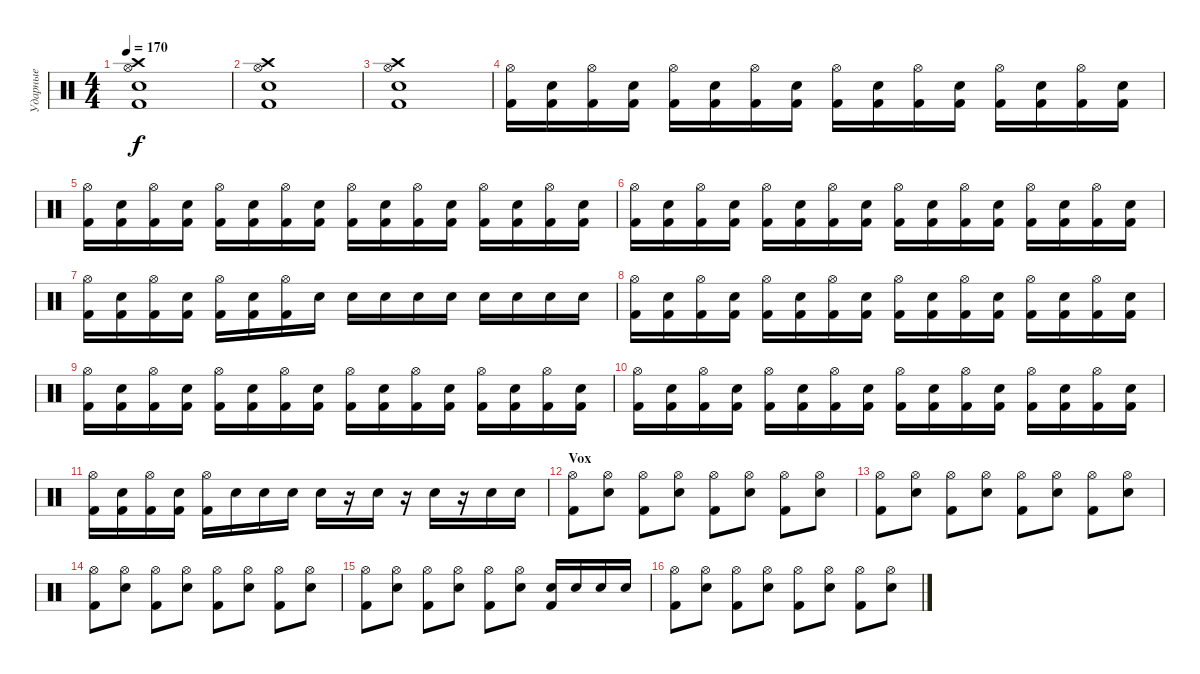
\track ("Ударные" "Ударные") {instrument percussion}
\staff {score}
\articulation defaults
\ts (4 4)
\tempo 170
\clef neutral
\ks c
("Crash high (hit)" "Hi-Hat (open)" "Snare (hit) 2" "Kick (hit) 2").1{dy f} |
("Crash high (hit)" "Hi-Hat (open)" "Snare (hit) 2" "Kick (hit) 2").1 |
("Crash high (hit)" "Hi-Hat (open)" "Snare (hit) 2" "Kick (hit) 2").1 |
("Hi-Hat (open)" "Kick (hit) 2").16 ("Snare (hit) 2" "Kick (hit) 2").16 ("Hi-Hat (open)" "Kick (hit) 2").16 ("Snare (hit) 2" "Kick (hit) 2").16 ("Hi-Hat (open)" "Kick (hit) 2").16 ("Snare (hit) 2" "Kick (hit) 2").16 ("Hi-Hat (open)" "Kick (hit) 2").16 ("Snare (hit) 2" "Kick (hit) 2").16 ("Hi-Hat (open)" "Kick (hit) 2").16 ("Snare (hit) 2" "Kick (hit) 2").16 ("Hi-Hat (open)" "Kick (hit) 2").16 ("Snare (hit) 2" "Kick (hit) 2").16 ("Hi-Hat (open)" "Kick (hit) 2").16 ("Snare (hit) 2" "Kick (hit) 2").16 ("Hi-Hat (open)" "Kick (hit) 2").16 ("Snare (hit) 2" "Kick (hit) 2").16 |
("Hi-Hat (open)" "Kick (hit) 2").16 ("Snare (hit) 2" "Kick (hit) 2").16 ("Hi-Hat (open)" "Kick (hit) 2").16 ("Snare (hit) 2" "Kick (hit) 2").16 ("Hi-Hat (open)" "Kick (hit) 2").16 ("Snare (hit) 2" "Kick (hit) 2").16 ("Hi-Hat (open)" "Kick (hit) 2").16 ("Snare (hit) 2" "Kick (hit) 2").16 ("Hi-Hat (open)" "Kick (hit) 2").16 ("Snare (hit) 2" "Kick (hit) 2").16 ("Hi-Hat (open)" "Kick (hit) 2").16 ("Snare (hit) 2" "Kick (hit) 2").16 ("Hi-Hat (open)" "Kick (hit) 2").16 ("Snare (hit) 2" "Kick (hit) 2").16 ("Hi-Hat (open)" "Kick (hit) 2").16 ("Snare (hit) 2" "Kick (hit) 2").16 |
("Hi-Hat (open)" "Kick (hit) 2").16 ("Snare (hit) 2" "Kick (hit) 2").16 ("Hi-Hat (open)" "Kick (hit) 2").16 ("Snare (hit) 2" "Kick (hit) 2").16 ("Hi-Hat (open)" "Kick (hit) 2").16 ("Snare (hit) 2" "Kick (hit) 2").16 ("Hi-Hat (open)" "Kick (hit) 2").16 ("Snare (hit) 2" "Kick (hit) 2").16 ("Hi-Hat (open)" "Kick (hit) 2").16 ("Snare (hit) 2" "Kick (hit) 2").16 ("Hi-Hat (open)" "Kick (hit) 2").16 ("Snare (hit) 2" "Kick (hit) 2").16 ("Hi-Hat (open)" "Kick (hit) 2").16 ("Snare (hit) 2" "Kick (hit) 2").16 ("Hi-Hat (open)" "Kick (hit) 2").16 ("Snare (hit) 2" "Kick (hit) 2").16 |
("Hi-Hat (open)" "Kick (hit) 2").16 ("Snare (hit) 2" "Kick (hit) 2").16 ("Hi-Hat (open)" "Kick (hit) 2").16 ("Snare (hit) 2" "Kick (hit) 2").16 ("Hi-Hat (open)" "Kick (hit) 2").16 ("Snare (hit) 2" "Kick (hit) 2").16 ("Hi-Hat (open)" "Kick (hit) 2").16 "Snare (hit) 2".16 "Snare (hit) 2".16 "Snare (hit) 2".16 "Snare (hit) 2".16 "Snare (hit) 2".16 "Snare (hit) 2".16 "Snare (hit) 2".16 "Snare (hit) 2".16 "Snare (hit) 2".16 |
("Hi-Hat (open)" "Kick (hit) 2").16 ("Snare (hit) 2" "Kick (hit) 2").16 ("Hi-Hat (open)" "Kick (hit) 2").16 ("Snare (hit) 2" "Kick (hit) 2").16 ("Hi-Hat (open)" "Kick (hit) 2").16 ("Snare (hit) 2" "Kick (hit) 2").16 ("Hi-Hat (open)" "Kick (hit) 2").16 ("Snare (hit) 2" "Kick (hit) 2").16 ("Hi-Hat (open)" "Kick (hit) 2").16 ("Snare (hit) 2" "Kick (hit) 2").16 ("Hi-Hat (open)" "Kick (hit) 2").16 ("Snare (hit) 2" "Kick (hit) 2").16 ("Hi-Hat (open)" "Kick (hit) 2").16 ("Snare (hit) 2" "Kick (hit) 2").16 ("Hi-Hat (open)" "Kick (hit) 2").16 ("Snare (hit) 2" "Kick (hit) 2").16 |
("Hi-Hat (open)" "Kick (hit) 2").16 ("Snare (hit) 2" "Kick (hit) 2").16 ("Hi-Hat (open)" "Kick (hit) 2").16 ("Snare (hit) 2" "Kick (hit) 2").16 ("Hi-Hat (open)" "Kick (hit) 2").16 ("Snare (hit) 2" "Kick (hit) 2").16 ("Hi-Hat (open)" "Kick (hit) 2").16 ("Snare (hit) 2" "Kick (hit) 2").16 ("Hi-Hat (open)" "Kick (hit) 2").16 ("Snare (hit) 2" "Kick (hit) 2").16 ("Hi-Hat (open)" "Kick (hit) 2").16 ("Snare (hit) 2" "Kick (hit) 2").16 ("Hi-Hat (open)" "Kick (hit) 2").16 ("Snare (hit) 2" "Kick (hit) 2").16 ("Hi-Hat (open)" "Kick (hit) 2").16 ("Snare (hit) 2" "Kick (hit) 2").16 |
("Hi-Hat (open)" "Kick (hit) 2").16 ("Snare (hit) 2" "Kick (hit) 2").16 ("Hi-Hat (open)" "Kick (hit) 2").16 ("Snare (hit) 2" "Kick (hit) 2").16 ("Hi-Hat (open)" "Kick (hit) 2").16 ("Snare (hit) 2" "Kick (hit) 2").16 ("Hi-Hat (open)" "Kick (hit) 2").16 ("Snare (hit) 2" "Kick (hit) 2").16 ("Hi-Hat (open)" "Kick (hit) 2").16 ("Snare (hit) 2" "Kick (hit) 2").16 ("Hi-Hat (open)" "Kick (hit) 2").16 ("Snare (hit) 2" "Kick (hit) 2").16 ("Hi-Hat (open)" "Kick (hit) 2").16 ("Snare (hit) 2" "Kick (hit) 2").16 ("Hi-Hat (open)" "Kick (hit) 2").16 ("Snare (hit) 2" "Kick (hit) 2").16 |
("Hi-Hat (open)" "Kick (hit) 2").16 ("Snare (hit) 2" "Kick (hit) 2").16 ("Hi-Hat (open)" "Kick (hit) 2").16 ("Snare (hit) 2" "Kick (hit) 2").16 ("Hi-Hat (open)" "Kick (hit) 2").16 "Snare (hit) 2".16 "Snare (hit) 2".16 "Snare (hit) 2".16 "Snare (hit) 2".16 r.16 "Snare (hit) 2".16 r.16 "Snare (hit) 2".16 r.16 "Snare (hit) 2".16 "Snare (hit) 2".16 |
\section ("" "Vox")
("Hi-Hat (open)" "Kick (hit) 2").8 ("Hi-Hat (open)" "Snare (hit) 2").8 ("Hi-Hat (open)" "Kick (hit) 2").8 ("Hi-Hat (open)" "Snare (hit) 2").8 ("Hi-Hat (open)" "Kick (hit) 2").8 ("Hi-Hat (open)" "Snare (hit) 2").8 ("Hi-Hat (open)" "Kick (hit) 2").8 ("Hi-Hat (open)" "Snare (hit) 2").8 |
("Hi-Hat (open)" "Kick (hit) 2").8 ("Hi-Hat (open)" "Snare (hit) 2").8 ("Hi-Hat (open)" "Kick (hit) 2").8 ("Hi-Hat (open)" "Snare (hit) 2").8 ("Hi-Hat (open)" "Kick (hit) 2").8 ("Hi-Hat (open)" "Snare (hit) 2").8 ("Hi-Hat (open)" "Kick (hit) 2").8 ("Hi-Hat (open)" "Snare (hit) 2").8 |
("Hi-Hat (open)" "Kick (hit) 2").8 ("Hi-Hat (open)" "Snare (hit) 2").8 ("Hi-Hat (open)" "Kick (hit) 2").8 ("Hi-Hat (open)" "Snare (hit) 2").8 ("Hi-Hat (open)" "Kick (hit) 2").8 ("Hi-Hat (open)" "Snare (hit) 2").8 ("Hi-Hat (open)" "Kick (hit) 2").8 ("Hi-Hat (open)" "Snare (hit) 2").8 |
("Hi-Hat (open)" "Kick (hit) 2").8 ("Hi-Hat (open)" "Snare (hit) 2").8 ("Hi-Hat (open)" "Kick (hit) 2").8 ("Hi-Hat (open)" "Snare (hit) 2").8 ("Hi-Hat (open)" "Kick (hit) 2").8 ("Hi-Hat (open)" "Snare (hit) 2").8 ("Snare (hit) 2" "Kick (hit) 2").16 "Snare (hit) 2".16 "Snare (hit) 2".16 "Snare (hit) 2".16 |
("Hi-Hat (open)" "Kick (hit) 2").8 ("Hi-Hat (open)" "Snare (hit) 2").8 ("Hi-Hat (open)" "Kick (hit) 2").8 ("Hi-Hat (open)" "Snare (hit) 2").8 ("Hi-Hat (open)" "Kick (hit) 2").8 ("Hi-Hat (open)" "Snare (hit) 2").8 ("Hi-Hat (open)" "Kick (hit) 2").8 ("Hi-Hat (open)" "Snare (hit) 2").8
